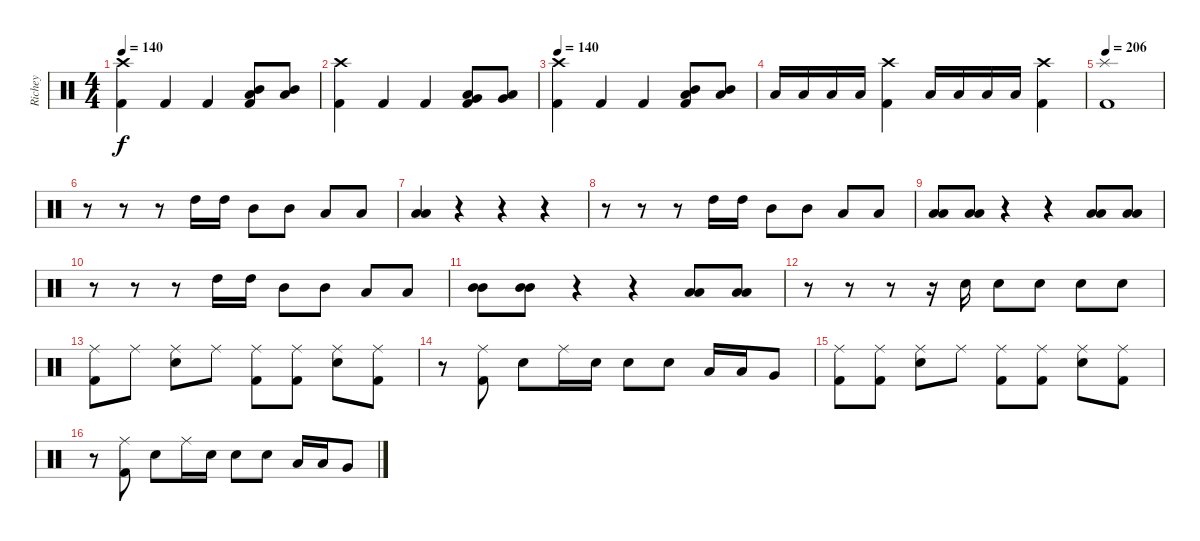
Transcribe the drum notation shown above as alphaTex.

\track ("Richey" "Richey") {instrument percussion}
\staff {score}
\articulation defaults
\ts (4 4)
\tempo 140
\clef neutral
\ks c
("Crash high (hit)" "Kick (hit) 2").4{dy f} "Kick (hit) 2".4 "Kick (hit) 2".4 ("Mid Tom (hit)" "Low Tom (hit)" "Kick (hit) 2").8 ("Mid Tom (hit)" "Low Tom (hit)").8 |
("Crash high (hit)" "Kick (hit) 2").4 "Kick (hit) 2".4 "Kick (hit) 2".4 ("Very Low Tom (hit)" "Low Tom (hit)" "Kick (hit) 2").8 ("Very Low Tom (hit)" "Low Tom (hit)").8 |
\tempo 140
("Crash high (hit)" "Kick (hit) 2").4 "Kick (hit) 2".4 "Kick (hit) 2".4 ("Mid Tom (hit)" "Low Tom (hit)" "Kick (hit) 2").8 ("Mid Tom (hit)" "Low Tom (hit)").8 |
"Low Tom (hit)".16 "Low Tom (hit)".16 "Low Tom (hit)".16 "Low Tom (hit)".16 ("Crash high (hit)" "Kick (hit) 2").4 "Low Tom (hit)".16 "Low Tom (hit)".16 "Low Tom (hit)".16 "Low Tom (hit)".16 ("Crash high (hit)" "Kick (hit) 2").4 |
\tempo 206
("Splash (hit)" "Kick (hit) 2").1 |
r.8 r.8 r.8 "High Tom (hit)".16 "High Tom (hit)".16 "Mid Tom (hit)".8 "Mid Tom (hit)".8 "Low Tom (hit)".8 "Low Tom (hit)".8 |
("Low Tom (hit)" "Low Tom (hit)").4 r.4 r.4 r.4 |
r.8 r.8 r.8 "High Tom (hit)".16 "High Tom (hit)".16 "Mid Tom (hit)".8 "Mid Tom (hit)".8 "Low Tom (hit)".8 "Low Tom (hit)".8 |
("Low Tom (hit)" "Low Tom (hit)").8 ("Low Tom (hit)" "Low Tom (hit)").8 r.4 r.4 ("Low Tom (hit)" "Low Tom (hit)").8 ("Low Tom (hit)" "Low Tom (hit)").8 |
r.8 r.8 r.8 "High Tom (hit)".16 "High Tom (hit)".16 "Mid Tom (hit)".8 "Mid Tom (hit)".8 "Low Tom (hit)".8 "Low Tom (hit)".8 |
("Mid Tom (hit)" "Mid Tom (hit)").8 ("Mid Tom (hit)" "Mid Tom (hit)").8 r.4 r.4 ("Low Tom (hit)" "Low Tom (hit)").8 ("Low Tom (hit)" "Low Tom (hit)").8 |
r.8 r.8 r.8 r.16 "Snare (hit) 2".16 "Snare (hit) 2".8 "Snare (hit) 2".8 "Snare (hit) 2".8 "Snare (hit) 2".8 |
("Ride (middle)" "Kick (hit) 2").8 "Ride (middle)".8 ("Ride (middle)" "Snare (hit) 2").8 "Ride (middle)".8 ("Ride (middle)" "Kick (hit) 2").8 ("Ride (middle)" "Kick (hit) 2").8 ("Ride (middle)" "Snare (hit) 2").8 ("Ride (middle)" "Kick (hit) 2").8 |
r.8 ("Ride (middle)" "Kick (hit) 2").8 "Snare (hit) 2".8 "Ride (middle)".16 "Snare (hit) 2".16 "Snare (hit) 2".8 "Snare (hit) 2".8 "Low Tom (hit)".16 "Low Tom (hit)".16 "Very Low Tom (hit)".8 |
("Ride (middle)" "Kick (hit) 2").8 ("Ride (middle)" "Kick (hit) 2").8 ("Ride (middle)" "Snare (hit) 2").8 "Ride (middle)".8 ("Ride (middle)" "Kick (hit) 2").8 ("Ride (middle)" "Kick (hit) 2").8 ("Ride (middle)" "Snare (hit) 2").8 ("Ride (middle)" "Kick (hit) 2").8 |
r.8 ("Ride (middle)" "Kick (hit) 2").8 "Snare (hit) 2".8 "Ride (middle)".16 "Snare (hit) 2".16 "Snare (hit) 2".8 "Snare (hit) 2".8 "Low Tom (hit)".16 "Low Tom (hit)".16 "Very Low Tom (hit)".8
